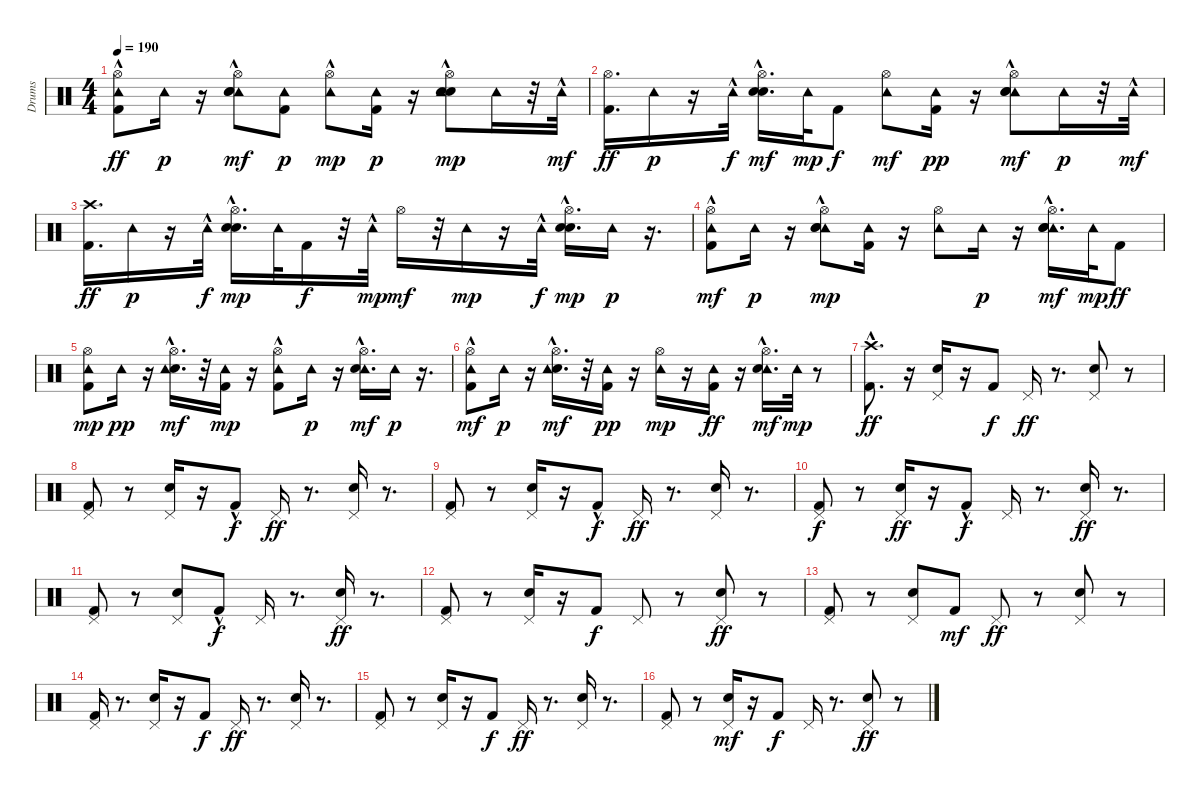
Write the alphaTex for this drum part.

\track ("Drums" "Drums") {instrument percussion}
\staff {score}
\articulation defaults
\ts (4 4)
\tempo 190
\clef neutral
\ks c
("Hi-Hat (open)" "Tambourine (hit)"{hac} "Kick (hit) 2").8{dy ff} "Tambourine (hit)".16{dy p} r.16 ("Tambourine (hit)"{hac} "Hand Clap (hit)"{hac} "Snare (hit) 2" "Hi-Hat (open)"{hac}).8{dy mf} ("Kick (hit) 2" "Tambourine (hit)").8{dy p} ("Tambourine (hit)"{hac} "Hi-Hat (open)").8{dy mp} ("Kick (hit) 2" "Tambourine (hit)").16{dy p} r.16 ("Hand Clap (hit)"{hac} "Snare (hit) 2" "Hi-Hat (open)" "Tambourine (hit)"{hac}).8{dy mp} "Tambourine (hit)".16 r.32 "Tambourine (hit)"{hac}.32{dy mf} |
("Hi-Hat (open)" "Kick (hit) 2").16{d dy ff} "Tambourine (hit)".16{dy p} r.16 "Tambourine (hit)"{hac}.32{dy f} ("Hand Clap (hit)"{hac} "Snare (hit) 2" "Hi-Hat (open)").16{d dy mf} "Tambourine (hit)".32{dy mp} "Kick (hit) 2".8{dy f} ("Tambourine (hit)" "Hi-Hat (open)").8{dy mf} ("Kick (hit) 2" "Tambourine (hit)").16{dy pp} r.16 ("Tambourine (hit)"{hac} "Snare (hit) 2" "Hand Clap (hit)"{hac} "Hi-Hat (open)").8{dy mf} "Tambourine (hit)".16{dy p} r.32 "Tambourine (hit)"{hac}.32{dy mf} |
("Kick (hit) 2" "Crash high (hit)").16{d dy ff} "Tambourine (hit)".16{dy p} r.16 "Tambourine (hit)"{hac}.32{dy f} ("Hand Clap (hit)"{hac} "Snare (hit) 2" "Hi-Hat (open)").16{d dy mp} "Tambourine (hit)".32 "Kick (hit) 2".16{dy f} r.32 "Tambourine (hit)"{hac}.32{dy mp} "Hi-Hat (open)".16{dy mf} r.32 "Tambourine (hit)".16{dy mp} r.16 "Tambourine (hit)"{hac}.32{dy f} ("Snare (hit) 2" "Hand Clap (hit)"{hac} "Hi-Hat (open)").16{d dy mp} "Tambourine (hit)".16{dy p} r.16{d} |
("Tambourine (hit)"{hac} "Kick (hit) 2" "Hi-Hat (open)").8{dy mf} "Tambourine (hit)".16{dy p} r.16 ("Tambourine (hit)"{hac} "Hand Clap (hit)"{hac} "Snare (hit) 2" "Hi-Hat (open)").8{dy mp} ("Kick (hit) 2" "Tambourine (hit)").16 r.16 ("Hi-Hat (open)" "Tambourine (hit)").8 "Tambourine (hit)".16{dy p} r.16 ("Tambourine (hit)"{hac} "Hand Clap (hit)"{hac} "Snare (hit) 2" "Hi-Hat (open)").16{d dy mf} "Tambourine (hit)".32{dy mp} "Kick (hit) 2".8{dy ff} |
("Hi-Hat (open)" "Kick (hit) 2" "Tambourine (hit)").8{dy mp} "Tambourine (hit)".16{dy pp} r.16 ("Snare (hit) 2" "Hi-Hat (open)" "Tambourine (hit)"{hac}).16{d dy mf} r.32 ("Kick (hit) 2" "Tambourine (hit)").16{dy mp} r.16 ("Kick (hit) 2" "Hi-Hat (open)" "Tambourine (hit)"{hac}).8 "Tambourine (hit)".16{dy p} r.16 ("Tambourine (hit)"{hac} "Snare (hit) 2" "Hi-Hat (open)").16{d dy mf} "Tambourine (hit)".16{dy p} r.16{d} |
("Tambourine (hit)"{hac} "Kick (hit) 2" "Hi-Hat (open)").8{dy mf} "Tambourine (hit)".16{dy p} r.16 ("Snare (hit) 2" "Hi-Hat (open)" "Tambourine (hit)"{hac}).16{d dy mf} r.32 ("Kick (hit) 2" "Tambourine (hit)").16{dy pp} r.16 ("Hi-Hat (open)" "Tambourine (hit)").16{dy mp} r.16 ("Tambourine (hit)" "Kick (hit) 2").16{dy ff} r.16 ("Tambourine (hit)"{hac} "Snare (hit) 2" "Hi-Hat (open)").16{d dy mf} "Tambourine (hit)".32{dy mp} r.8 |
("Kick (hit) 2"{hac} "Crash high (hit)").8{d dy ff} r.16 ("Snare (hit) 2" "Pedal Hi-Hat (hit)").16 r.16 "Kick (hit) 2".8{dy f} "Pedal Hi-Hat (hit)".16{dy ff} r.8{d} ("Snare (hit) 2" "Pedal Hi-Hat (hit)").8 r.8 |
("Kick (hit) 2" "Pedal Hi-Hat (hit)").8 r.8 ("Snare (hit) 2" "Pedal Hi-Hat (hit)").16 r.16 "Kick (hit) 2"{hac}.8{dy f} "Pedal Hi-Hat (hit)".16{dy ff} r.8{d} ("Snare (hit) 2" "Pedal Hi-Hat (hit)").16 r.8{d} |
("Kick (hit) 2" "Pedal Hi-Hat (hit)").8 r.8 ("Snare (hit) 2" "Pedal Hi-Hat (hit)").16 r.16 "Kick (hit) 2"{hac}.8{dy f} "Pedal Hi-Hat (hit)".16{dy ff} r.8{d} ("Snare (hit) 2" "Pedal Hi-Hat (hit)").16 r.8{d} |
("Kick (hit) 2" "Pedal Hi-Hat (hit)").8{dy f} r.8 ("Snare (hit) 2" "Pedal Hi-Hat (hit)").16{dy ff} r.16 "Kick (hit) 2"{hac}.8{dy f} "Pedal Hi-Hat (hit)".16 r.8{d} ("Snare (hit) 2" "Pedal Hi-Hat (hit)").16{dy ff} r.8{d} |
("Kick (hit) 2" "Pedal Hi-Hat (hit)").8 r.8 ("Snare (hit) 2" "Pedal Hi-Hat (hit)").8 "Kick (hit) 2"{hac}.8{dy f} "Pedal Hi-Hat (hit)".16 r.8{d} ("Snare (hit) 2" "Pedal Hi-Hat (hit)").16{dy ff} r.8{d} |
("Kick (hit) 2" "Pedal Hi-Hat (hit)").8 r.8 ("Snare (hit) 2" "Pedal Hi-Hat (hit)").16 r.16 "Kick (hit) 2".8{dy f} "Pedal Hi-Hat (hit)".8 r.8 ("Snare (hit) 2" "Pedal Hi-Hat (hit)").8{dy ff} r.8 |
("Kick (hit) 2" "Pedal Hi-Hat (hit)").8 r.8 ("Snare (hit) 2" "Pedal Hi-Hat (hit)").8 "Kick (hit) 2".8{dy mf} "Pedal Hi-Hat (hit)".8{dy ff} r.8 ("Snare (hit) 2" "Pedal Hi-Hat (hit)").8 r.8 |
("Kick (hit) 2" "Pedal Hi-Hat (hit)").16 r.8{d} ("Snare (hit) 2" "Pedal Hi-Hat (hit)").16 r.16 "Kick (hit) 2".8{dy f} "Pedal Hi-Hat (hit)".16{dy ff} r.8{d} ("Snare (hit) 2" "Pedal Hi-Hat (hit)").16 r.8{d} |
("Kick (hit) 2" "Pedal Hi-Hat (hit)").8 r.8 ("Snare (hit) 2" "Pedal Hi-Hat (hit)").16 r.16 "Kick (hit) 2".8{dy f} "Pedal Hi-Hat (hit)".16{dy ff} r.8{d} ("Snare (hit) 2" "Pedal Hi-Hat (hit)").16 r.8{d} |
("Kick (hit) 2" "Pedal Hi-Hat (hit)").8 r.8 ("Snare (hit) 2" "Pedal Hi-Hat (hit)").16{dy mf} r.16 "Kick (hit) 2".8{dy f} "Pedal Hi-Hat (hit)".16 r.8{d} ("Snare (hit) 2" "Pedal Hi-Hat (hit)").8{dy ff} r.8
